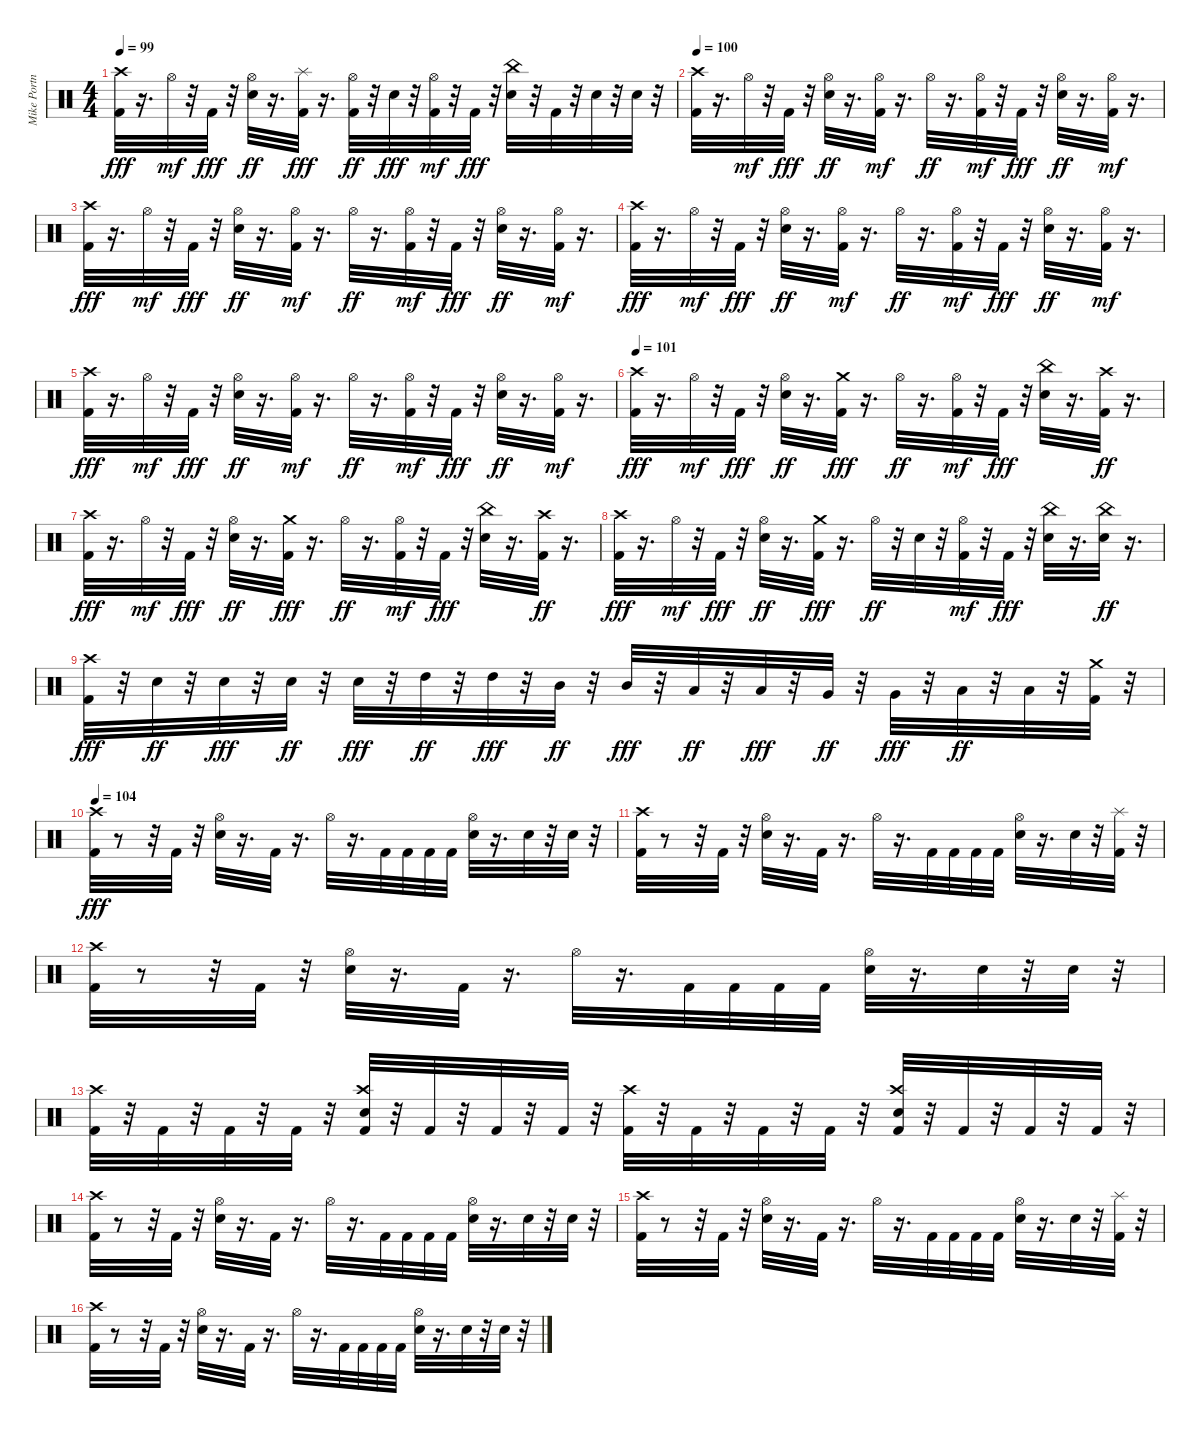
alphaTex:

\track ("Mike Portnoy" "Mike Portn") {instrument percussion}
\staff {score}
\articulation defaults
\ts (4 4)
\tempo 99
\clef neutral
\ks c
("Kick (hit) 2" "Crash high (hit)").32{dy fff} r.16{d} "Hi-Hat (open)".32{dy mf} r.32 "Kick (hit) 2".32{dy fff} r.32 ("Snare (hit) 2" "Hi-Hat (open)").32{dy ff} r.16{d} ("Kick (hit) 2" "Splash (hit)").32{dy fff} r.16{d} ("Kick (hit) 2" "Hi-Hat (open)").32{dy ff} r.32 "Snare (hit) 2".32{dy fff} r.32 ("Kick (hit) 2" "Hi-Hat (open)").32{dy mf} r.32 "Kick (hit) 2".32{dy fff} r.32 ("Snare (hit) 2" "China (hit)").32 r.32 "Kick (hit) 2".32 r.32 "Snare (hit) 2".32 r.32 "Snare (hit) 2".32 r.32 |
\tempo 100
("Kick (hit) 2" "Crash high (hit)").32 r.16{d} "Hi-Hat (open)".32{dy mf} r.32 "Kick (hit) 2".32{dy fff} r.32 ("Snare (hit) 2" "Hi-Hat (open)").32{dy ff} r.16{d} ("Kick (hit) 2" "Hi-Hat (open)").32{dy mf} r.16{d} "Hi-Hat (open)".32{dy ff} r.16{d} ("Kick (hit) 2" "Hi-Hat (open)").32{dy mf} r.32 "Kick (hit) 2".32{dy fff} r.32 ("Snare (hit) 2" "Hi-Hat (open)").32{dy ff} r.16{d} ("Kick (hit) 2" "Hi-Hat (open)").32{dy mf} r.16{d} |
("Kick (hit) 2" "Crash high (hit)").32{dy fff} r.16{d} "Hi-Hat (open)".32{dy mf} r.32 "Kick (hit) 2".32{dy fff} r.32 ("Snare (hit) 2" "Hi-Hat (open)").32{dy ff} r.16{d} ("Kick (hit) 2" "Hi-Hat (open)").32{dy mf} r.16{d} "Hi-Hat (open)".32{dy ff} r.16{d} ("Kick (hit) 2" "Hi-Hat (open)").32{dy mf} r.32 "Kick (hit) 2".32{dy fff} r.32 ("Snare (hit) 2" "Hi-Hat (open)").32{dy ff} r.16{d} ("Kick (hit) 2" "Hi-Hat (open)").32{dy mf} r.16{d} |
("Kick (hit) 2" "Crash high (hit)").32{dy fff} r.16{d} "Hi-Hat (open)".32{dy mf} r.32 "Kick (hit) 2".32{dy fff} r.32 ("Snare (hit) 2" "Hi-Hat (open)").32{dy ff} r.16{d} ("Kick (hit) 2" "Hi-Hat (open)").32{dy mf} r.16{d} "Hi-Hat (open)".32{dy ff} r.16{d} ("Kick (hit) 2" "Hi-Hat (open)").32{dy mf} r.32 "Kick (hit) 2".32{dy fff} r.32 ("Snare (hit) 2" "Hi-Hat (open)").32{dy ff} r.16{d} ("Kick (hit) 2" "Hi-Hat (open)").32{dy mf} r.16{d} |
("Kick (hit) 2" "Crash high (hit)").32{dy fff} r.16{d} "Hi-Hat (open)".32{dy mf} r.32 "Kick (hit) 2".32{dy fff} r.32 ("Snare (hit) 2" "Hi-Hat (open)").32{dy ff} r.16{d} ("Kick (hit) 2" "Hi-Hat (open)").32{dy mf} r.16{d} "Hi-Hat (open)".32{dy ff} r.16{d} ("Kick (hit) 2" "Hi-Hat (open)").32{dy mf} r.32 "Kick (hit) 2".32{dy fff} r.32 ("Snare (hit) 2" "Hi-Hat (open)").32{dy ff} r.16{d} ("Kick (hit) 2" "Hi-Hat (open)").32{dy mf} r.16{d} |
\tempo 101
("Kick (hit) 2" "Crash high (hit)").32{dy fff} r.16{d} "Hi-Hat (open)".32{dy mf} r.32 "Kick (hit) 2".32{dy fff} r.32 ("Snare (hit) 2" "Hi-Hat (open)").32{dy ff} r.16{d} ("Kick (hit) 2" "Crash medium (hit)").32{dy fff} r.16{d} "Hi-Hat (open)".32{dy ff} r.16{d} ("Kick (hit) 2" "Hi-Hat (open)").32{dy mf} r.32 "Kick (hit) 2".32{dy fff} r.32 ("Snare (hit) 2" "China (hit)").32 r.16{d} ("Kick (hit) 2" "Crash high (hit)").32{dy ff} r.16{d} |
("Kick (hit) 2" "Crash high (hit)").32{dy fff} r.16{d} "Hi-Hat (open)".32{dy mf} r.32 "Kick (hit) 2".32{dy fff} r.32 ("Snare (hit) 2" "Hi-Hat (open)").32{dy ff} r.16{d} ("Kick (hit) 2" "Crash medium (hit)").32{dy fff} r.16{d} "Hi-Hat (open)".32{dy ff} r.16{d} ("Kick (hit) 2" "Hi-Hat (open)").32{dy mf} r.32 "Kick (hit) 2".32{dy fff} r.32 ("Snare (hit) 2" "China (hit)").32 r.16{d} ("Kick (hit) 2" "Crash high (hit)").32{dy ff} r.16{d} |
("Kick (hit) 2" "Crash high (hit)").32{dy fff} r.16{d} "Hi-Hat (open)".32{dy mf} r.32 "Kick (hit) 2".32{dy fff} r.32 ("Snare (hit) 2" "Hi-Hat (open)").32{dy ff} r.16{d} ("Kick (hit) 2" "Crash medium (hit)").32{dy fff} r.16{d} "Hi-Hat (open)".32{dy ff} r.32 "Snare (hit) 2".32 r.32 ("Kick (hit) 2" "Hi-Hat (open)").32{dy mf} r.32 "Kick (hit) 2".32{dy fff} r.32 ("Snare (hit) 2" "China (hit)").32 r.16{d} ("Snare (hit) 2" "China (hit)").32{dy ff} r.16{d} |
("Kick (hit) 2" "Crash high (hit)").32{dy fff} r.32 "Snare (hit) 2".32{dy ff} r.32 "Snare (hit) 2".32{dy fff} r.32 "Snare (hit) 2".32{dy ff} r.32 "Snare (hit) 2".32{dy fff} r.32 "High Tom (hit)".32{dy ff} r.32 "High Tom (hit)".32{dy fff} r.32 "Mid Tom (hit)".32{dy ff} r.32 "Mid Tom (hit)".32{dy fff} r.32 "Low Tom (hit)".32{dy ff} r.32 "Low Tom (hit)".32{dy fff} r.32 "Very Low Tom (hit)".32{dy ff} r.32 "Very Low Tom (hit)".32{dy fff} r.32 "Low Floor Tom (hit)".32{dy ff} r.32 "Low Floor Tom (hit)".32 r.32 ("Kick (hit) 2" "Crash medium (hit)").32 r.32 |
\tempo 104
("Kick (hit) 2" "Crash high (hit)").32{dy fff} r.8 r.32 "Kick (hit) 2".32 r.32 ("Hi-Hat (open)" "Snare (hit) 2").32 r.16{d} "Kick (hit) 2".32 r.16{d} "Hi-Hat (open)".32 r.16{d} "Kick (hit) 2".32 "Kick (hit) 2".32 "Kick (hit) 2".32 "Kick (hit) 2".32 ("Hi-Hat (open)" "Snare (hit) 2").32 r.16{d} "Snare (hit) 2".32 r.32 "Snare (hit) 2".32 r.32 |
("Kick (hit) 2" "Crash high (hit)").32 r.8 r.32 "Kick (hit) 2".32 r.32 ("Hi-Hat (open)" "Snare (hit) 2").32 r.16{d} "Kick (hit) 2".32 r.16{d} "Hi-Hat (open)".32 r.16{d} "Kick (hit) 2".32 "Kick (hit) 2".32 "Kick (hit) 2".32 "Kick (hit) 2".32 ("Hi-Hat (open)" "Snare (hit) 2").32 r.16{d} "Snare (hit) 2".32 r.32 ("Kick (hit) 2" "Splash (hit)").32 r.32 |
("Kick (hit) 2" "Crash high (hit)").32 r.8 r.32 "Kick (hit) 2".32 r.32 ("Hi-Hat (open)" "Snare (hit) 2").32 r.16{d} "Kick (hit) 2".32 r.16{d} "Hi-Hat (open)".32 r.16{d} "Kick (hit) 2".32 "Kick (hit) 2".32 "Kick (hit) 2".32 "Kick (hit) 2".32 ("Hi-Hat (open)" "Snare (hit) 2").32 r.16{d} "Snare (hit) 2".32 r.32 "Snare (hit) 2".32 r.32 |
("Kick (hit) 2" "Crash high (hit)").32 r.32 "Kick (hit) 2".32 r.32 "Kick (hit) 2".32 r.32 "Kick (hit) 2".32 r.32 ("Kick (hit) 2" "Crash high (hit)" "Snare (hit) 2").32 r.32 "Kick (hit) 2".32 r.32 "Kick (hit) 2".32 r.32 "Kick (hit) 2".32 r.32 ("Kick (hit) 2" "Crash high (hit)").32 r.32 "Kick (hit) 2".32 r.32 "Kick (hit) 2".32 r.32 "Kick (hit) 2".32 r.32 ("Kick (hit) 2" "Crash high (hit)" "Snare (hit) 2").32 r.32 "Kick (hit) 2".32 r.32 "Kick (hit) 2".32 r.32 "Kick (hit) 2".32 r.32 |
("Kick (hit) 2" "Crash high (hit)").32 r.8 r.32 "Kick (hit) 2".32 r.32 ("Hi-Hat (open)" "Snare (hit) 2").32 r.16{d} "Kick (hit) 2".32 r.16{d} "Hi-Hat (open)".32 r.16{d} "Kick (hit) 2".32 "Kick (hit) 2".32 "Kick (hit) 2".32 "Kick (hit) 2".32 ("Hi-Hat (open)" "Snare (hit) 2").32 r.16{d} "Snare (hit) 2".32 r.32 "Snare (hit) 2".32 r.32 |
("Kick (hit) 2" "Crash high (hit)").32 r.8 r.32 "Kick (hit) 2".32 r.32 ("Hi-Hat (open)" "Snare (hit) 2").32 r.16{d} "Kick (hit) 2".32 r.16{d} "Hi-Hat (open)".32 r.16{d} "Kick (hit) 2".32 "Kick (hit) 2".32 "Kick (hit) 2".32 "Kick (hit) 2".32 ("Hi-Hat (open)" "Snare (hit) 2").32 r.16{d} "Snare (hit) 2".32 r.32 ("Kick (hit) 2" "Splash (hit)").32 r.32 |
("Kick (hit) 2" "Crash high (hit)").32 r.8 r.32 "Kick (hit) 2".32 r.32 ("Hi-Hat (open)" "Snare (hit) 2").32 r.16{d} "Kick (hit) 2".32 r.16{d} "Hi-Hat (open)".32 r.16{d} "Kick (hit) 2".32 "Kick (hit) 2".32 "Kick (hit) 2".32 "Kick (hit) 2".32 ("Hi-Hat (open)" "Snare (hit) 2").32 r.16{d} "Snare (hit) 2".32 r.32 "Snare (hit) 2".32 r.32
